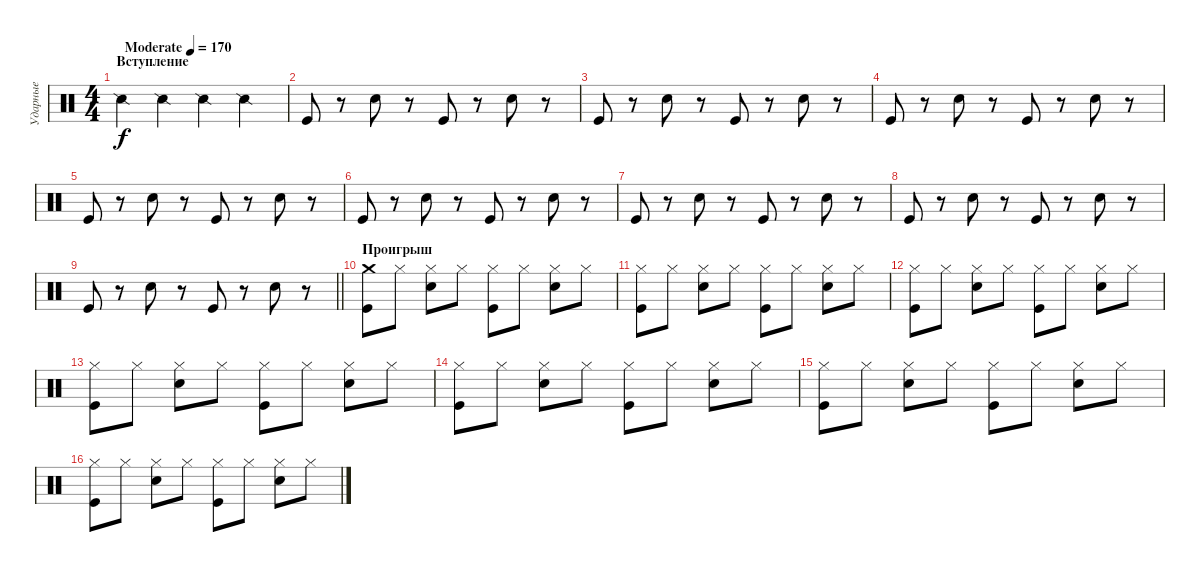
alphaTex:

\track ("Ударные" "Ударные") {instrument percussion}
\staff {score}
\articulation defaults
\ts (4 4)
\section ("" "Вступление")
\tempo (170 "Moderate")
\clef neutral
\ks c "Snare (side stick) 2".4{dy f} "Snare (side stick) 2".4 "Snare (side stick) 2".4 "Snare (side stick) 2".4
|
"Kick (hit)".8 r.8 "Electric Snare (hit)".8 r.8 "Kick (hit)".8 r.8 "Electric Snare (hit)".8 r.8 |
"Kick (hit)".8 r.8 "Electric Snare (hit)".8 r.8 "Kick (hit)".8 r.8 "Electric Snare (hit)".8 r.8 |
"Kick (hit)".8 r.8 "Electric Snare (hit)".8 r.8 "Kick (hit)".8 r.8 "Electric Snare (hit)".8 r.8 |
"Kick (hit)".8 r.8 "Electric Snare (hit)".8 r.8 "Kick (hit)".8 r.8 "Electric Snare (hit)".8 r.8 |
"Kick (hit)".8 r.8 "Electric Snare (hit)".8 r.8 "Kick (hit)".8 r.8 "Electric Snare (hit)".8 r.8 |
"Kick (hit)".8 r.8 "Electric Snare (hit)".8 r.8 "Kick (hit)".8 r.8 "Electric Snare (hit)".8 r.8 |
"Kick (hit)".8 r.8 "Electric Snare (hit)".8 r.8 "Kick (hit)".8 r.8 "Electric Snare (hit)".8 r.8 |
\barLineRight lightlight "Kick (hit)".8
r.8 "Electric Snare (hit)".8 r.8 "Kick (hit)".8 r.8 "Electric Snare (hit)".8 r.8 |
\section ("" "Проигрыш")
("Crash medium (hit)" "Kick (hit)").8 "Hi-Hat (closed)".8 ("Hi-Hat (closed)" "Electric Snare (hit)").8 "Hi-Hat (closed)".8 ("Hi-Hat (closed)" "Kick (hit)").8 "Hi-Hat (closed)".8 ("Hi-Hat (closed)" "Electric Snare (hit)").8 "Hi-Hat (closed)".8 |
("Hi-Hat (closed)" "Kick (hit)").8 "Hi-Hat (closed)".8 ("Hi-Hat (closed)" "Electric Snare (hit)").8 "Hi-Hat (closed)".8 ("Hi-Hat (closed)" "Kick (hit)").8 "Hi-Hat (closed)".8 ("Hi-Hat (closed)" "Electric Snare (hit)").8 "Hi-Hat (closed)".8 |
("Hi-Hat (closed)" "Kick (hit)").8 "Hi-Hat (closed)".8 ("Hi-Hat (closed)" "Electric Snare (hit)").8 "Hi-Hat (closed)".8 ("Hi-Hat (closed)" "Kick (hit)").8 "Hi-Hat (closed)".8 ("Hi-Hat (closed)" "Electric Snare (hit)").8 "Hi-Hat (closed)".8 |
("Hi-Hat (closed)" "Kick (hit)").8 "Hi-Hat (closed)".8 ("Hi-Hat (closed)" "Electric Snare (hit)").8 "Hi-Hat (closed)".8 ("Hi-Hat (closed)" "Kick (hit)").8 "Hi-Hat (closed)".8 ("Hi-Hat (closed)" "Electric Snare (hit)").8 "Hi-Hat (closed)".8 |
("Hi-Hat (closed)" "Kick (hit)").8 "Hi-Hat (closed)".8 ("Hi-Hat (closed)" "Electric Snare (hit)").8 "Hi-Hat (closed)".8 ("Hi-Hat (closed)" "Kick (hit)").8 "Hi-Hat (closed)".8 ("Hi-Hat (closed)" "Electric Snare (hit)").8 "Hi-Hat (closed)".8 |
("Hi-Hat (closed)" "Kick (hit)").8 "Hi-Hat (closed)".8 ("Hi-Hat (closed)" "Electric Snare (hit)").8 "Hi-Hat (closed)".8 ("Hi-Hat (closed)" "Kick (hit)").8 "Hi-Hat (closed)".8 ("Hi-Hat (closed)" "Electric Snare (hit)").8 "Hi-Hat (closed)".8 |
("Hi-Hat (closed)" "Kick (hit)").8 "Hi-Hat (closed)".8 ("Hi-Hat (closed)" "Electric Snare (hit)").8 "Hi-Hat (closed)".8 ("Hi-Hat (closed)" "Kick (hit)").8 "Hi-Hat (closed)".8 ("Hi-Hat (closed)" "Electric Snare (hit)").8 "Hi-Hat (closed)".8
